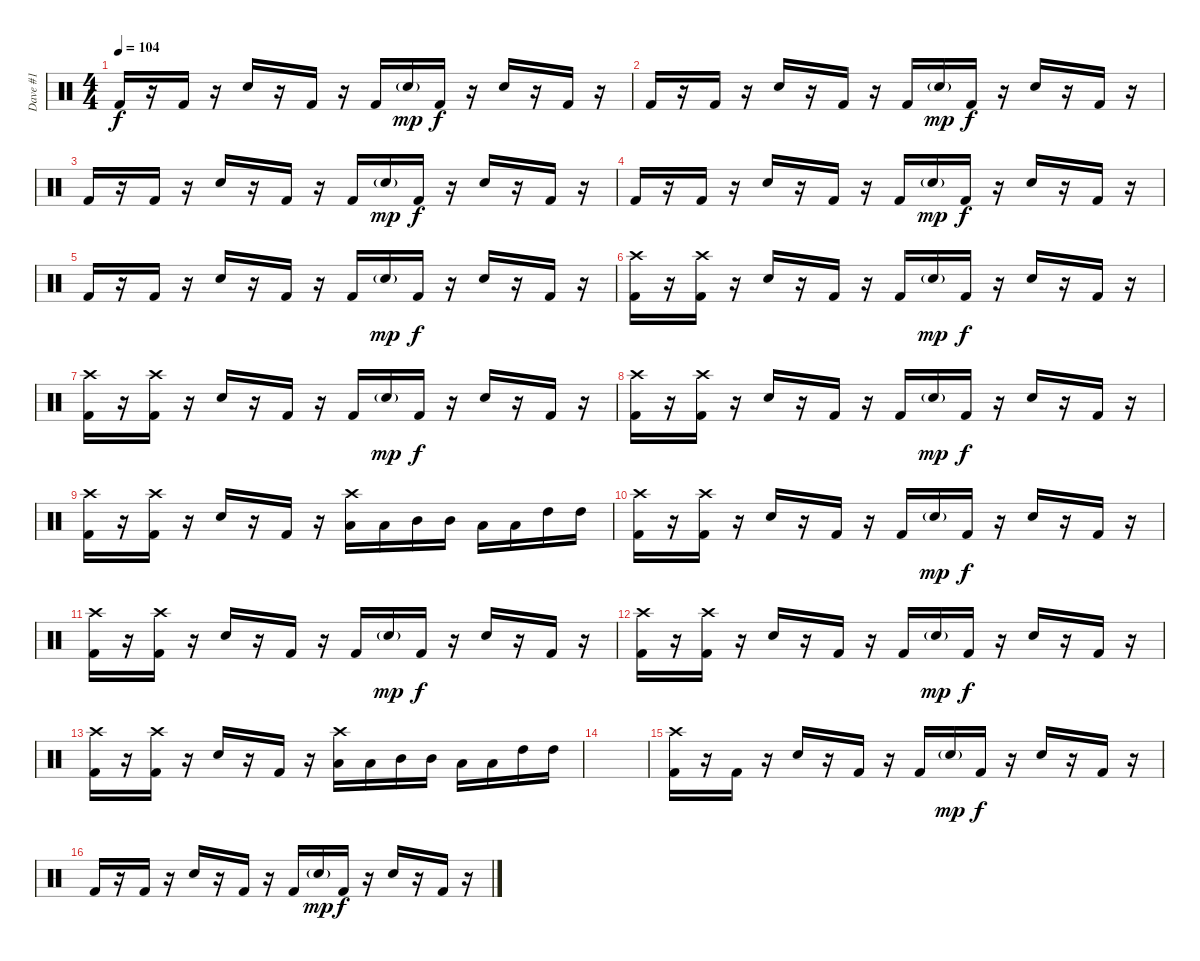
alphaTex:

\track ("Dave #1" "Dave #1") {instrument percussion}
\staff {score}
\articulation defaults
\ts (4 4)
\tempo 104
\clef neutral
\ks c "Kick (hit) 2".16{dy f}
r.16 "Kick (hit) 2".16 r.16 "Snare (hit) 2".16 r.16 "Kick (hit) 2".16 r.16 "Kick (hit) 2".16 "Snare (hit) 2"{g}.16{dy mp} "Kick (hit) 2".16{dy f} r.16 "Snare (hit) 2".16 r.16 "Kick (hit) 2".16 r.16 |
"Kick (hit) 2".16 r.16 "Kick (hit) 2".16 r.16 "Snare (hit) 2".16 r.16 "Kick (hit) 2".16 r.16 "Kick (hit) 2".16 "Snare (hit) 2"{g}.16{dy mp} "Kick (hit) 2".16{dy f} r.16 "Snare (hit) 2".16 r.16 "Kick (hit) 2".16 r.16 |
"Kick (hit) 2".16 r.16 "Kick (hit) 2".16 r.16 "Snare (hit) 2".16 r.16 "Kick (hit) 2".16 r.16 "Kick (hit) 2".16 "Snare (hit) 2"{g}.16{dy mp} "Kick (hit) 2".16{dy f} r.16 "Snare (hit) 2".16 r.16 "Kick (hit) 2".16 r.16 |
"Kick (hit) 2".16 r.16 "Kick (hit) 2".16 r.16 "Snare (hit) 2".16 r.16 "Kick (hit) 2".16 r.16 "Kick (hit) 2".16 "Snare (hit) 2"{g}.16{dy mp} "Kick (hit) 2".16{dy f} r.16 "Snare (hit) 2".16 r.16 "Kick (hit) 2".16 r.16 |
"Kick (hit) 2".16 r.16 "Kick (hit) 2".16 r.16 "Snare (hit) 2".16 r.16 "Kick (hit) 2".16 r.16 "Kick (hit) 2".16 "Snare (hit) 2"{g}.16{dy mp} "Kick (hit) 2".16{dy f} r.16 "Snare (hit) 2".16 r.16 "Kick (hit) 2".16 r.16 |
("Crash high (hit)" "Kick (hit) 2").16 r.16 ("Crash high (hit)" "Kick (hit) 2").16 r.16 "Snare (hit) 2".16 r.16 "Kick (hit) 2".16 r.16 "Kick (hit) 2".16 "Snare (hit) 2"{g}.16{dy mp} "Kick (hit) 2".16{dy f} r.16 "Snare (hit) 2".16 r.16 "Kick (hit) 2".16 r.16 |
("Crash high (hit)" "Kick (hit) 2").16 r.16 ("Crash high (hit)" "Kick (hit) 2").16 r.16 "Snare (hit) 2".16 r.16 "Kick (hit) 2".16 r.16 "Kick (hit) 2".16 "Snare (hit) 2"{g}.16{dy mp} "Kick (hit) 2".16{dy f} r.16 "Snare (hit) 2".16 r.16 "Kick (hit) 2".16 r.16 |
("Crash high (hit)" "Kick (hit) 2").16 r.16 ("Crash high (hit)" "Kick (hit) 2").16 r.16 "Snare (hit) 2".16 r.16 "Kick (hit) 2".16 r.16 "Kick (hit) 2".16 "Snare (hit) 2"{g}.16{dy mp} "Kick (hit) 2".16{dy f} r.16 "Snare (hit) 2".16 r.16 "Kick (hit) 2".16 r.16 |
("Crash high (hit)" "Kick (hit) 2").16 r.16 ("Crash high (hit)" "Kick (hit) 2").16 r.16 "Snare (hit) 2".16 r.16 "Kick (hit) 2".16 r.16 ("Crash high (hit)" "Low Tom (hit)").16 "Low Tom (hit)".16 "Mid Tom (hit)".16 "Mid Tom (hit)".16 "Low Tom (hit)".16 "Low Tom (hit)".16 "High Tom (hit)".16 "High Tom (hit)".16 |
("Crash high (hit)" "Kick (hit) 2").16 r.16 ("Crash high (hit)" "Kick (hit) 2").16 r.16 "Snare (hit) 2".16 r.16 "Kick (hit) 2".16 r.16 "Kick (hit) 2".16 "Snare (hit) 2"{g}.16{dy mp} "Kick (hit) 2".16{dy f} r.16 "Snare (hit) 2".16 r.16 "Kick (hit) 2".16 r.16 |
("Crash high (hit)" "Kick (hit) 2").16 r.16 ("Crash high (hit)" "Kick (hit) 2").16 r.16 "Snare (hit) 2".16 r.16 "Kick (hit) 2".16 r.16 "Kick (hit) 2".16 "Snare (hit) 2"{g}.16{dy mp} "Kick (hit) 2".16{dy f} r.16 "Snare (hit) 2".16 r.16 "Kick (hit) 2".16 r.16 |
("Crash high (hit)" "Kick (hit) 2").16 r.16 ("Crash high (hit)" "Kick (hit) 2").16 r.16 "Snare (hit) 2".16 r.16 "Kick (hit) 2".16 r.16 "Kick (hit) 2".16 "Snare (hit) 2"{g}.16{dy mp} "Kick (hit) 2".16{dy f} r.16 "Snare (hit) 2".16 r.16 "Kick (hit) 2".16 r.16 |
("Crash high (hit)" "Kick (hit) 2").16 r.16 ("Crash high (hit)" "Kick (hit) 2").16 r.16 "Snare (hit) 2".16 r.16 "Kick (hit) 2".16 r.16 ("Crash high (hit)" "Low Tom (hit)").16 "Low Tom (hit)".16 "Mid Tom (hit)".16 "Mid Tom (hit)".16 "Low Tom (hit)".16 "Low Tom (hit)".16 "High Tom (hit)".16 "High Tom (hit)".16 |
|
("Crash high (hit)" "Kick (hit) 2").16 r.16 "Kick (hit) 2".16 r.16 "Snare (hit) 2".16 r.16 "Kick (hit) 2".16 r.16 "Kick (hit) 2".16 "Snare (hit) 2"{g}.16{dy mp} "Kick (hit) 2".16{dy f} r.16 "Snare (hit) 2".16 r.16 "Kick (hit) 2".16 r.16 |
"Kick (hit) 2".16 r.16 "Kick (hit) 2".16 r.16 "Snare (hit) 2".16 r.16 "Kick (hit) 2".16 r.16 "Kick (hit) 2".16 "Snare (hit) 2"{g}.16{dy mp} "Kick (hit) 2".16{dy f} r.16 "Snare (hit) 2".16 r.16 "Kick (hit) 2".16 r.16
